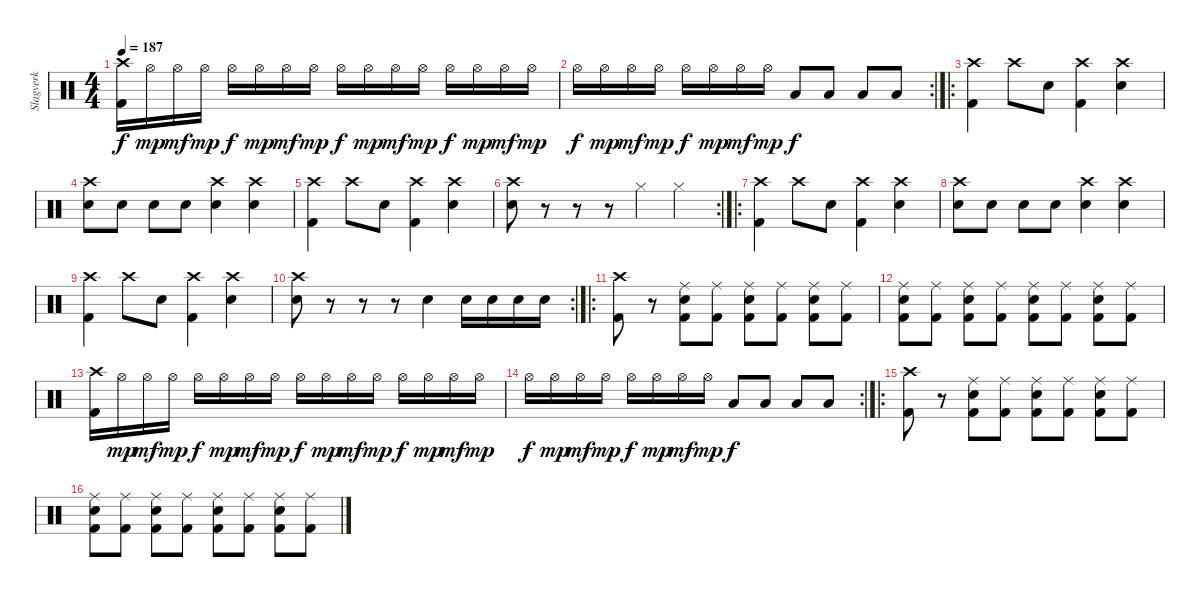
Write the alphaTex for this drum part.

\track ("Slagverk" "Slagverk") {instrument percussion}
\staff {score}
\articulation defaults
\ts (4 4)
\tempo 187
\clef neutral
\ks c
("Crash high (hit)" "Kick (hit) 2").16{dy f} "Hi-Hat (open)".16{dy mp} "Hi-Hat (open)".16{dy mf} "Hi-Hat (open)".16{dy mp} "Hi-Hat (open)".16{dy f} "Hi-Hat (open)".16{dy mp} "Hi-Hat (open)".16{dy mf} "Hi-Hat (open)".16{dy mp} "Hi-Hat (open)".16{dy f} "Hi-Hat (open)".16{dy mp} "Hi-Hat (open)".16{dy mf} "Hi-Hat (open)".16{dy mp} "Hi-Hat (open)".16{dy f} "Hi-Hat (open)".16{dy mp} "Hi-Hat (open)".16{dy mf} "Hi-Hat (open)".16{dy mp} |
\rc 2 "Hi-Hat (open)".16{dy f} "Hi-Hat (open)".16{dy mp} "Hi-Hat (open)".16{dy mf} "Hi-Hat (open)".16{dy mp} "Hi-Hat (open)".16{dy f} "Hi-Hat (open)".16{dy mp} "Hi-Hat (open)".16{dy mf} "Hi-Hat (open)".16{dy mp} "Low Floor Tom (hit)".8{dy f} "Low Floor Tom (hit)".8 "Low Floor Tom (hit)".8 "Low Floor Tom (hit)".8
|
\ro
("Crash high (hit)" "Kick (hit) 2").4 "Crash high (hit)".8 "Electric Snare (hit)".8 ("Crash high (hit)" "Kick (hit) 2").4 ("Crash high (hit)" "Electric Snare (hit)").4 |
("Electric Snare (hit)" "Crash high (hit)").8 "Electric Snare (hit)".8 "Electric Snare (hit)".8 "Electric Snare (hit)".8 ("Electric Snare (hit)" "Crash high (hit)").4 ("Electric Snare (hit)" "Crash high (hit)").4 |
("Crash high (hit)" "Kick (hit) 2").4 "Crash high (hit)".8 "Electric Snare (hit)".8 ("Crash high (hit)" "Kick (hit) 2").4 ("Crash high (hit)" "Electric Snare (hit)").4 |
\rc 2
("Electric Snare (hit)" "Crash high (hit)").8 r.8 r.8 r.8 "Hi-Hat (closed)".4 "Hi-Hat (closed)".4 |
\ro
("Crash high (hit)" "Kick (hit) 2").4 "Crash high (hit)".8 "Electric Snare (hit)".8 ("Crash high (hit)" "Kick (hit) 2").4 ("Crash high (hit)" "Electric Snare (hit)").4 |
("Electric Snare (hit)" "Crash high (hit)").8 "Electric Snare (hit)".8 "Electric Snare (hit)".8 "Electric Snare (hit)".8 ("Electric Snare (hit)" "Crash high (hit)").4 ("Electric Snare (hit)" "Crash high (hit)").4 |
("Crash high (hit)" "Kick (hit) 2").4 "Crash high (hit)".8 "Electric Snare (hit)".8 ("Crash high (hit)" "Kick (hit) 2").4 ("Crash high (hit)" "Electric Snare (hit)").4 |
\rc 2
("Electric Snare (hit)" "Crash high (hit)").8 r.8 r.8 r.8 "Electric Snare (hit)".4 "Electric Snare (hit)".16 "Electric Snare (hit)".16 "Electric Snare (hit)".16 "Electric Snare (hit)".16 |
\ro
("Crash high (hit)" "Kick (hit) 2").8 r.8 ("Ride (middle)" "Kick (hit) 2" "Electric Snare (hit)").8 ("Ride (middle)" "Kick (hit) 2").8 ("Ride (middle)" "Kick (hit) 2" "Electric Snare (hit)").8 ("Ride (middle)" "Kick (hit) 2").8 ("Ride (middle)" "Kick (hit) 2" "Electric Snare (hit)").8 ("Ride (middle)" "Kick (hit) 2").8 |
("Ride (middle)" "Electric Snare (hit)" "Kick (hit) 2").8 ("Ride (middle)" "Kick (hit) 2").8 ("Ride (middle)" "Electric Snare (hit)" "Kick (hit) 2").8 ("Ride (middle)" "Kick (hit) 2").8 ("Ride (middle)" "Electric Snare (hit)" "Kick (hit) 2").8 ("Ride (middle)" "Kick (hit) 2").8 ("Ride (middle)" "Electric Snare (hit)" "Kick (hit) 2").8 ("Ride (middle)" "Kick (hit) 2").8 |
("Crash high (hit)" "Kick (hit) 2").16 "Hi-Hat (open)".16{dy mp} "Hi-Hat (open)".16{dy mf} "Hi-Hat (open)".16{dy mp} "Hi-Hat (open)".16{dy f} "Hi-Hat (open)".16{dy mp} "Hi-Hat (open)".16{dy mf} "Hi-Hat (open)".16{dy mp} "Hi-Hat (open)".16{dy f} "Hi-Hat (open)".16{dy mp} "Hi-Hat (open)".16{dy mf} "Hi-Hat (open)".16{dy mp} "Hi-Hat (open)".16{dy f} "Hi-Hat (open)".16{dy mp} "Hi-Hat (open)".16{dy mf} "Hi-Hat (open)".16{dy mp} |
\rc 2 "Hi-Hat (open)".16{dy f} "Hi-Hat (open)".16{dy mp} "Hi-Hat (open)".16{dy mf} "Hi-Hat (open)".16{dy mp} "Hi-Hat (open)".16{dy f} "Hi-Hat (open)".16{dy mp} "Hi-Hat (open)".16{dy mf} "Hi-Hat (open)".16{dy mp} "Low Floor Tom (hit)".8{dy f} "Low Floor Tom (hit)".8 "Low Floor Tom (hit)".8 "Low Floor Tom (hit)".8
|
\ro
("Crash high (hit)" "Kick (hit) 2").8 r.8 ("Ride (middle)" "Kick (hit) 2" "Electric Snare (hit)").8 ("Ride (middle)" "Kick (hit) 2").8 ("Ride (middle)" "Kick (hit) 2" "Electric Snare (hit)").8 ("Ride (middle)" "Kick (hit) 2").8 ("Ride (middle)" "Kick (hit) 2" "Electric Snare (hit)").8 ("Ride (middle)" "Kick (hit) 2").8 |
("Ride (middle)" "Electric Snare (hit)" "Kick (hit) 2").8 ("Ride (middle)" "Kick (hit) 2").8 ("Ride (middle)" "Electric Snare (hit)" "Kick (hit) 2").8 ("Ride (middle)" "Kick (hit) 2").8 ("Ride (middle)" "Electric Snare (hit)" "Kick (hit) 2").8 ("Ride (middle)" "Kick (hit) 2").8 ("Ride (middle)" "Electric Snare (hit)" "Kick (hit) 2").8 ("Ride (middle)" "Kick (hit) 2").8
